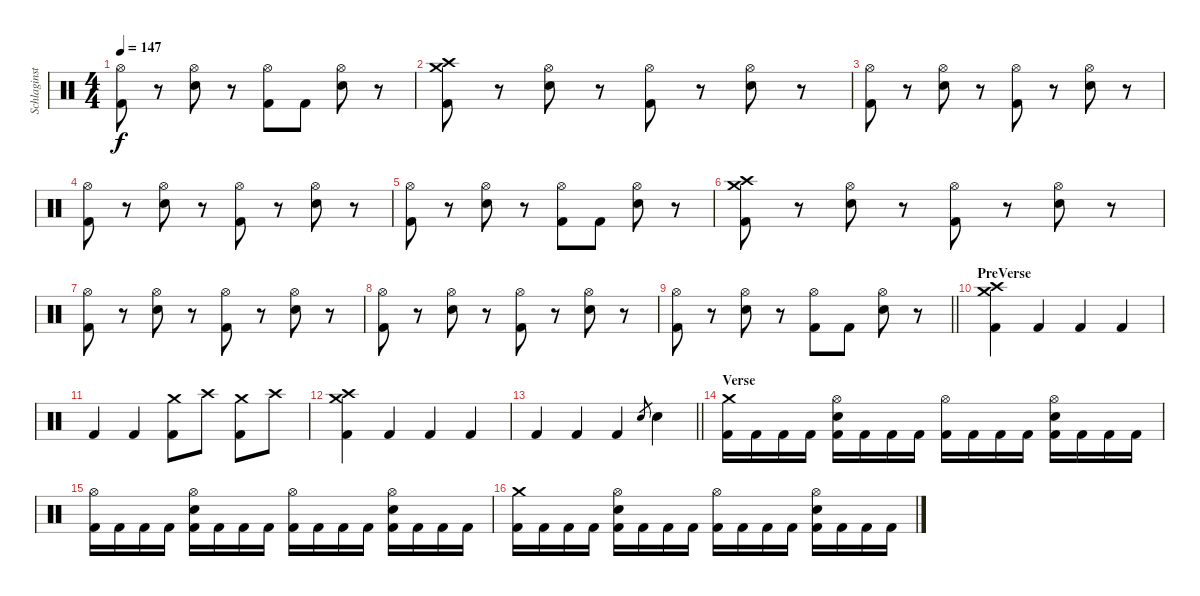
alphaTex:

\track ("Schlaginstrumente - Auswahl" "Schlaginst") {instrument percussion}
\staff {score}
\articulation defaults
\ts (4 4)
\tempo 147
\clef neutral
\ks c
("Hi-Hat (open)" "Kick (hit) 2").8{dy f} r.8 ("Hi-Hat (open)" "Snare (hit) 2").8 r.8 ("Hi-Hat (open)" "Kick (hit) 2").8 "Kick (hit) 2".8 ("Hi-Hat (open)" "Snare (hit) 2").8 r.8 |
("Crash medium (hit)" "Crash high (hit)" "Kick (hit) 2").8 r.8 ("Hi-Hat (open)" "Snare (hit) 2").8 r.8 ("Hi-Hat (open)" "Kick (hit) 2").8 r.8 ("Hi-Hat (open)" "Snare (hit) 2").8 r.8 |
("Hi-Hat (open)" "Kick (hit) 2").8 r.8 ("Hi-Hat (open)" "Snare (hit) 2").8 r.8 ("Hi-Hat (open)" "Kick (hit) 2").8 r.8 ("Hi-Hat (open)" "Snare (hit) 2").8 r.8 |
("Hi-Hat (open)" "Kick (hit) 2").8 r.8 ("Hi-Hat (open)" "Snare (hit) 2").8 r.8 ("Hi-Hat (open)" "Kick (hit) 2").8 r.8 ("Hi-Hat (open)" "Snare (hit) 2").8 r.8 |
("Hi-Hat (open)" "Kick (hit) 2").8 r.8 ("Hi-Hat (open)" "Snare (hit) 2").8 r.8 ("Hi-Hat (open)" "Kick (hit) 2").8 "Kick (hit) 2".8 ("Hi-Hat (open)" "Snare (hit) 2").8 r.8 |
("Crash medium (hit)" "Crash high (hit)" "Kick (hit) 2").8 r.8 ("Hi-Hat (open)" "Snare (hit) 2").8 r.8 ("Hi-Hat (open)" "Kick (hit) 2").8 r.8 ("Hi-Hat (open)" "Snare (hit) 2").8 r.8 |
("Hi-Hat (open)" "Kick (hit) 2").8 r.8 ("Hi-Hat (open)" "Snare (hit) 2").8 r.8 ("Hi-Hat (open)" "Kick (hit) 2").8 r.8 ("Hi-Hat (open)" "Snare (hit) 2").8 r.8 |
("Hi-Hat (open)" "Kick (hit) 2").8 r.8 ("Hi-Hat (open)" "Snare (hit) 2").8 r.8 ("Hi-Hat (open)" "Kick (hit) 2").8 r.8 ("Hi-Hat (open)" "Snare (hit) 2").8 r.8 |
\barLineRight lightlight
("Hi-Hat (open)" "Kick (hit) 2").8 r.8 ("Hi-Hat (open)" "Snare (hit) 2").8 r.8 ("Hi-Hat (open)" "Kick (hit) 2").8 "Kick (hit) 2".8 ("Hi-Hat (open)" "Snare (hit) 2").8 r.8 |
\section ("" "PreVerse")
("Crash high (hit)" "Crash medium (hit)" "Kick (hit) 2").4 "Kick (hit) 2".4 "Kick (hit) 2".4 "Kick (hit) 2".4 |
"Kick (hit) 2".4 "Kick (hit) 2".4 ("Crash medium (hit)" "Kick (hit) 2").8 "Crash high (hit)".8 ("Crash medium (hit)" "Kick (hit) 2").8 "Crash high (hit)".8 |
("Crash high (hit)" "Crash medium (hit)" "Kick (hit) 2").4 "Kick (hit) 2".4 "Kick (hit) 2".4 "Kick (hit) 2".4 |
\barLineRight lightlight "Kick (hit) 2".4 "Kick (hit) 2".4 "Kick (hit) 2".4 "Snare (hit) 2".8{gr} "Snare (hit) 2".4
|
\section ("" "Verse")
("Crash medium (hit)" "Kick (hit) 2").16 "Kick (hit) 2".16 "Kick (hit) 2".16 "Kick (hit) 2".16 ("Hi-Hat (open)" "Snare (hit) 2" "Kick (hit) 2").16 "Kick (hit) 2".16 "Kick (hit) 2".16 "Kick (hit) 2".16 ("Hi-Hat (open)" "Kick (hit) 2").16 "Kick (hit) 2".16 "Kick (hit) 2".16 "Kick (hit) 2".16 ("Hi-Hat (open)" "Snare (hit) 2" "Kick (hit) 2").16 "Kick (hit) 2".16 "Kick (hit) 2".16 "Kick (hit) 2".16 |
("Hi-Hat (open)" "Kick (hit) 2").16 "Kick (hit) 2".16 "Kick (hit) 2".16 "Kick (hit) 2".16 ("Hi-Hat (open)" "Snare (hit) 2" "Kick (hit) 2").16 "Kick (hit) 2".16 "Kick (hit) 2".16 "Kick (hit) 2".16 ("Hi-Hat (open)" "Kick (hit) 2").16 "Kick (hit) 2".16 "Kick (hit) 2".16 "Kick (hit) 2".16 ("Hi-Hat (open)" "Snare (hit) 2" "Kick (hit) 2").16 "Kick (hit) 2".16 "Kick (hit) 2".16 "Kick (hit) 2".16 |
("Crash medium (hit)" "Kick (hit) 2").16 "Kick (hit) 2".16 "Kick (hit) 2".16 "Kick (hit) 2".16 ("Hi-Hat (open)" "Snare (hit) 2" "Kick (hit) 2").16 "Kick (hit) 2".16 "Kick (hit) 2".16 "Kick (hit) 2".16 ("Hi-Hat (open)" "Kick (hit) 2").16 "Kick (hit) 2".16 "Kick (hit) 2".16 "Kick (hit) 2".16 ("Hi-Hat (open)" "Snare (hit) 2" "Kick (hit) 2").16 "Kick (hit) 2".16 "Kick (hit) 2".16 "Kick (hit) 2".16
